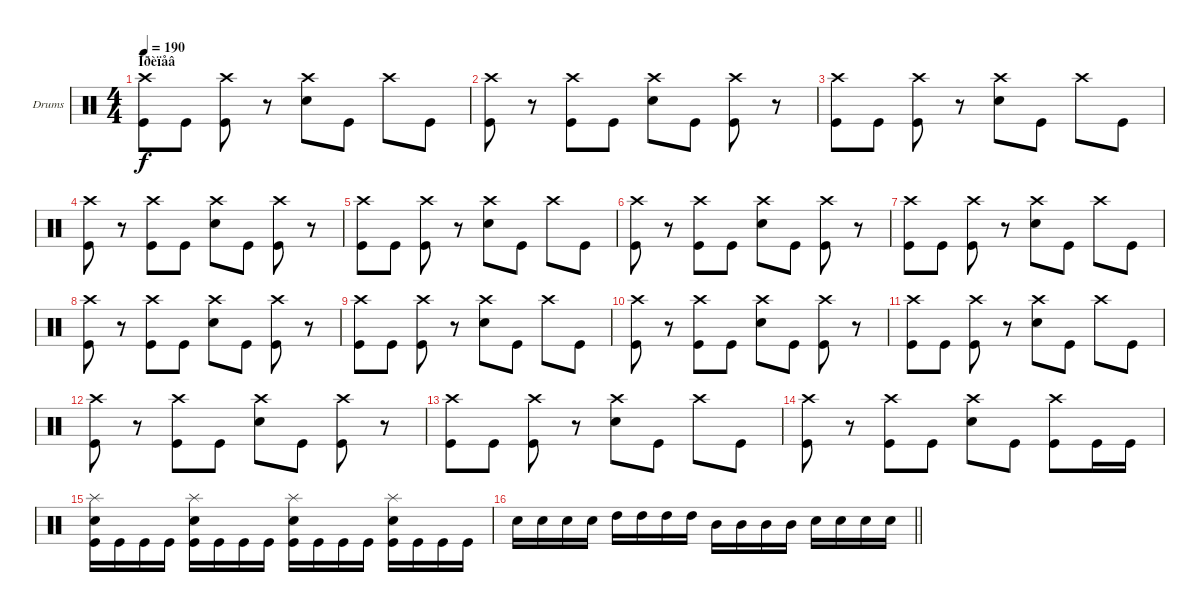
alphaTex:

\bracketExtendMode groupsimilarinstruments
\firstSystemTrackNameOrientation horizontal
\otherSystemsTrackNameOrientation horizontal
\track ("Drumkit" "Drums") {instrument percussion}
\staff {score}
\articulation defaults
\ts (4 4)
\section ("" "Ïðèïåâ")
\tempo 190
\clef neutral
\ks c
("Crash high (hit)" "Kick (hit)").8{dy f} "Kick (hit)".8 ("Crash high (hit)" "Kick (hit)").8 r.8 ("Crash high (hit)" "Snare (hit) 2").8 "Kick (hit)".8 "Crash high (hit)".8 "Kick (hit)".8 |
("Crash high (hit)" "Kick (hit)").8 r.8 ("Crash high (hit)" "Kick (hit)").8 "Kick (hit)".8 ("Crash high (hit)" "Snare (hit) 2").8 "Kick (hit)".8 ("Crash high (hit)" "Kick (hit)").8 r.8 |
("Crash high (hit)" "Kick (hit)").8 "Kick (hit)".8 ("Crash high (hit)" "Kick (hit)").8 r.8 ("Crash high (hit)" "Snare (hit) 2").8 "Kick (hit)".8 "Crash high (hit)".8 "Kick (hit)".8 |
("Crash high (hit)" "Kick (hit)").8 r.8 ("Crash high (hit)" "Kick (hit)").8 "Kick (hit)".8 ("Crash high (hit)" "Snare (hit) 2").8 "Kick (hit)".8 ("Crash high (hit)" "Kick (hit)").8 r.8 |
("Crash high (hit)" "Kick (hit)").8 "Kick (hit)".8 ("Crash high (hit)" "Kick (hit)").8 r.8 ("Crash high (hit)" "Snare (hit) 2").8 "Kick (hit)".8 "Crash high (hit)".8 "Kick (hit)".8 |
("Crash high (hit)" "Kick (hit)").8 r.8 ("Crash high (hit)" "Kick (hit)").8 "Kick (hit)".8 ("Crash high (hit)" "Snare (hit) 2").8 "Kick (hit)".8 ("Crash high (hit)" "Kick (hit)").8 r.8 |
("Crash high (hit)" "Kick (hit)").8 "Kick (hit)".8 ("Crash high (hit)" "Kick (hit)").8 r.8 ("Crash high (hit)" "Snare (hit) 2").8 "Kick (hit)".8 "Crash high (hit)".8 "Kick (hit)".8 |
("Crash high (hit)" "Kick (hit)").8 r.8 ("Crash high (hit)" "Kick (hit)").8 "Kick (hit)".8 ("Crash high (hit)" "Snare (hit) 2").8 "Kick (hit)".8 ("Crash high (hit)" "Kick (hit)").8 r.8 |
("Crash high (hit)" "Kick (hit)").8 "Kick (hit)".8 ("Crash high (hit)" "Kick (hit)").8 r.8 ("Crash high (hit)" "Snare (hit) 2").8 "Kick (hit)".8 "Crash high (hit)".8 "Kick (hit)".8 |
("Crash high (hit)" "Kick (hit)").8 r.8 ("Crash high (hit)" "Kick (hit)").8 "Kick (hit)".8 ("Crash high (hit)" "Snare (hit) 2").8 "Kick (hit)".8 ("Crash high (hit)" "Kick (hit)").8 r.8 |
("Crash high (hit)" "Kick (hit)").8 "Kick (hit)".8 ("Crash high (hit)" "Kick (hit)").8 r.8 ("Crash high (hit)" "Snare (hit) 2").8 "Kick (hit)".8 "Crash high (hit)".8 "Kick (hit)".8 |
("Crash high (hit)" "Kick (hit)").8 r.8 ("Crash high (hit)" "Kick (hit)").8 "Kick (hit)".8 ("Crash high (hit)" "Snare (hit) 2").8 "Kick (hit)".8 ("Crash high (hit)" "Kick (hit)").8 r.8 |
("Crash high (hit)" "Kick (hit)").8 "Kick (hit)".8 ("Crash high (hit)" "Kick (hit)").8 r.8 ("Crash high (hit)" "Snare (hit) 2").8 "Kick (hit)".8 "Crash high (hit)".8 "Kick (hit)".8 |
("Crash high (hit)" "Kick (hit)").8 r.8 ("Crash high (hit)" "Kick (hit)").8 "Kick (hit)".8 ("Crash high (hit)" "Snare (hit) 2").8 "Kick (hit)".8 ("Crash high (hit)" "Kick (hit)").8 "Kick (hit)".16 "Kick (hit)".16 |
("Splash (hit)" "Snare (hit) 2" "Kick (hit)").16 "Kick (hit)".16 "Kick (hit)".16 "Kick (hit)".16 ("Splash (hit)" "Snare (hit) 2" "Kick (hit)").16 "Kick (hit)".16 "Kick (hit)".16 "Kick (hit)".16 ("Splash (hit)" "Snare (hit) 2" "Kick (hit)").16 "Kick (hit)".16 "Kick (hit)".16 "Kick (hit)".16 ("Splash (hit)" "Snare (hit) 2" "Kick (hit)").16 "Kick (hit)".16 "Kick (hit)".16 "Kick (hit)".16 |
\barLineRight lightlight "Snare (hit) 2".16 "Snare (hit) 2".16 "Snare (hit) 2".16 "Snare (hit) 2".16 "High Tom (hit)".16 "High Tom (hit)".16 "High Tom (hit)".16 "High Tom (hit)".16 "Mid Tom (hit)".16 "Mid Tom (hit)".16 "Mid Tom (hit)".16 "Mid Tom (hit)".16 "Snare (hit) 2".16 "Snare (hit) 2".16 "Snare (hit) 2".16 "Snare (hit) 2".16
